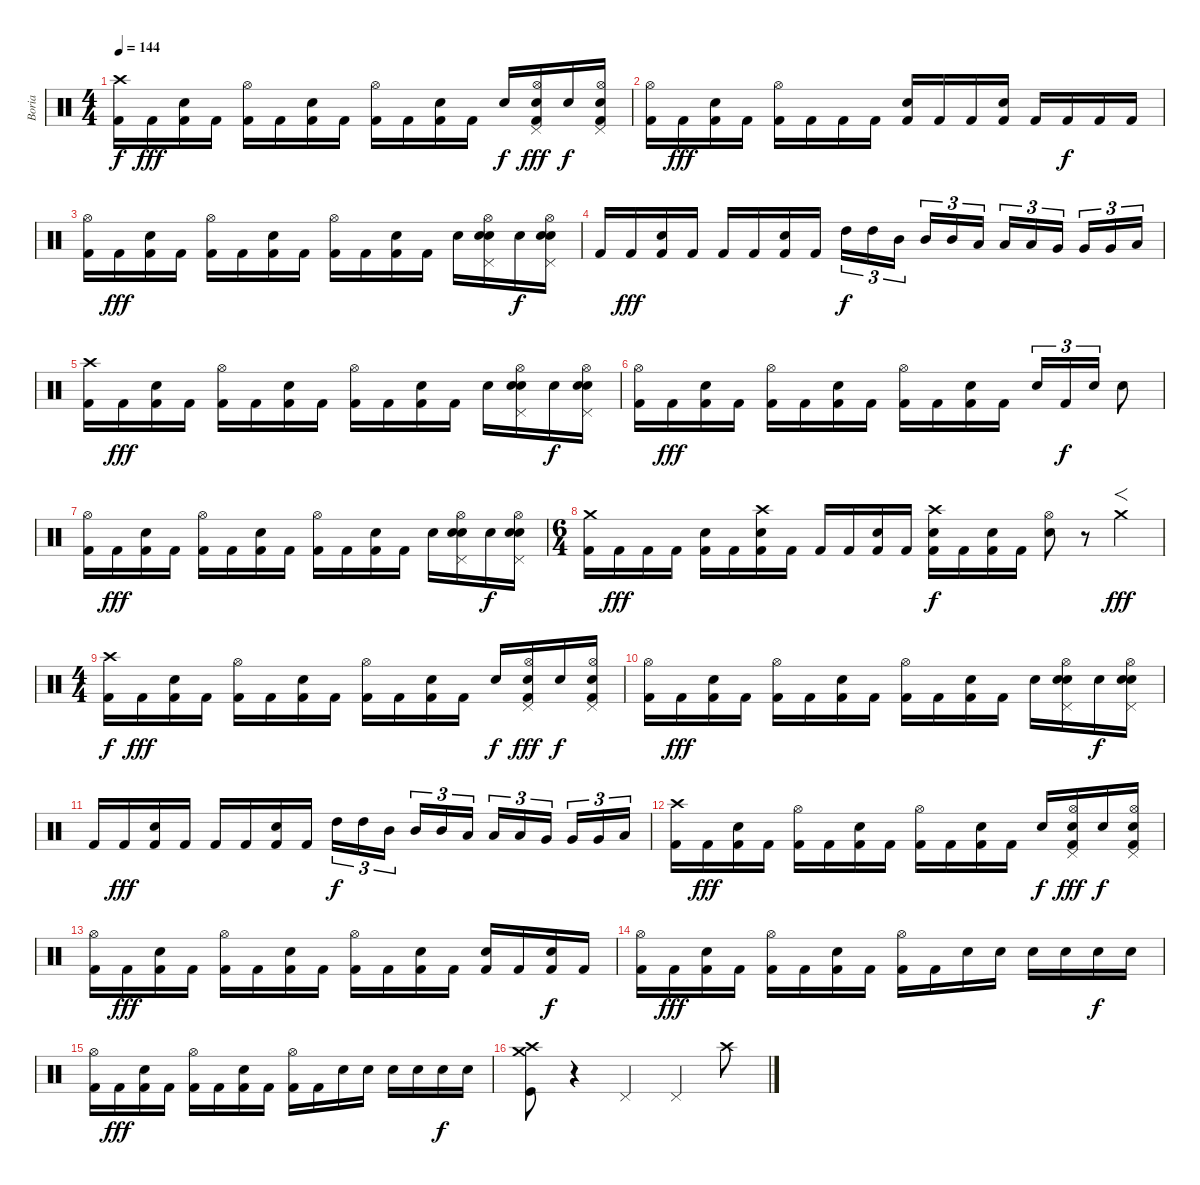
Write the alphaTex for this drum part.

\track ("Boria" "Boria") {instrument percussion}
\staff {score}
\articulation defaults
\ts (4 4)
\tempo 144
\clef neutral
\ks c
("Crash high (hit)" "Kick (hit) 2").16{dy f} "Kick (hit) 2".16{dy fff} ("Snare (hit) 2" "Kick (hit) 2").16 "Kick (hit) 2".16 ("Hi-Hat (open)" "Kick (hit) 2").16 "Kick (hit) 2".16 ("Snare (hit) 2" "Kick (hit) 2").16 "Kick (hit) 2".16 ("Hi-Hat (open)" "Kick (hit) 2").16 "Kick (hit) 2".16 ("Snare (hit) 2" "Kick (hit) 2").16 "Kick (hit) 2".16 "Snare (hit) 2".16{dy f} ("Pedal Hi-Hat (hit)" "Hi-Hat (open)" "Electric Snare (hit)" "Kick (hit) 2").16{dy fff} "Snare (hit) 2".16{dy f} ("Pedal Hi-Hat (hit)" "Hi-Hat (open)" "Electric Snare (hit)" "Kick (hit) 2").16 |
("Hi-Hat (open)" "Kick (hit) 2").16 "Kick (hit) 2".16{dy fff} ("Snare (hit) 2" "Kick (hit) 2").16 "Kick (hit) 2".16 ("Hi-Hat (open)" "Kick (hit) 2").16 "Kick (hit) 2".16 "Kick (hit) 2".16 "Kick (hit) 2".16 ("Snare (hit) 2" "Kick (hit) 2").16 "Kick (hit) 2".16 "Kick (hit) 2".16 ("Snare (hit) 2" "Kick (hit) 2").16 "Kick (hit) 2".16 "Kick (hit) 2".16{dy f} "Kick (hit) 2".16 "Kick (hit) 2".16 |
("Hi-Hat (open)" "Kick (hit) 2").16 "Kick (hit) 2".16{dy fff} ("Snare (hit) 2" "Kick (hit) 2").16 "Kick (hit) 2".16 ("Hi-Hat (open)" "Kick (hit) 2").16 "Kick (hit) 2".16 ("Snare (hit) 2" "Kick (hit) 2").16 "Kick (hit) 2".16 ("Hi-Hat (open)" "Kick (hit) 2").16 "Kick (hit) 2".16 ("Snare (hit) 2" "Kick (hit) 2").16 "Kick (hit) 2".16 "Snare (hit) 2".16 ("Pedal Hi-Hat (hit)" "Hi-Hat (open)" "Electric Snare (hit)" "Snare (hit) 2").16 "Snare (hit) 2".16{dy f} ("Pedal Hi-Hat (hit)" "Hi-Hat (open)" "Electric Snare (hit)" "Snare (hit) 2").16 |
"Kick (hit) 2".16 "Kick (hit) 2".16{dy fff} ("Snare (hit) 2" "Kick (hit) 2").16 "Kick (hit) 2".16 "Kick (hit) 2".16 "Kick (hit) 2".16 ("Snare (hit) 2" "Kick (hit) 2").16 "Kick (hit) 2".16 "High Tom (hit)".16{tu (3 2) dy f} "High Tom (hit)".16{tu (3 2)} "Mid Tom (hit)".16{tu (3 2)} "Mid Tom (hit)".16{tu (3 2)} "Mid Tom (hit)".16{tu (3 2)} "Low Tom (hit)".16{tu (3 2)} "Low Tom (hit)".16{tu (3 2)} "Low Tom (hit)".16{tu (3 2)} "Very Low Tom (hit)".16{tu (3 2)} "Very Low Tom (hit)".16{tu (3 2)} "Very Low Tom (hit)".16{tu (3 2)} "Low Floor Tom (hit)".16{tu (3 2)} |
("Crash high (hit)" "Kick (hit) 2").16 "Kick (hit) 2".16{dy fff} ("Snare (hit) 2" "Kick (hit) 2").16 "Kick (hit) 2".16 ("Hi-Hat (open)" "Kick (hit) 2").16 "Kick (hit) 2".16 ("Snare (hit) 2" "Kick (hit) 2").16 "Kick (hit) 2".16 ("Hi-Hat (open)" "Kick (hit) 2").16 "Kick (hit) 2".16 ("Snare (hit) 2" "Kick (hit) 2").16 "Kick (hit) 2".16 "Snare (hit) 2".16 ("Pedal Hi-Hat (hit)" "Hi-Hat (open)" "Electric Snare (hit)" "Snare (hit) 2").16 "Snare (hit) 2".16{dy f} ("Pedal Hi-Hat (hit)" "Hi-Hat (open)" "Electric Snare (hit)" "Snare (hit) 2").16 |
("Hi-Hat (open)" "Kick (hit) 2").16 "Kick (hit) 2".16{dy fff} ("Snare (hit) 2" "Kick (hit) 2").16 "Kick (hit) 2".16 ("Hi-Hat (open)" "Kick (hit) 2").16 "Kick (hit) 2".16 ("Snare (hit) 2" "Kick (hit) 2").16 "Kick (hit) 2".16 ("Hi-Hat (open)" "Kick (hit) 2").16 "Kick (hit) 2".16 ("Snare (hit) 2" "Kick (hit) 2").16 "Kick (hit) 2".16 "Snare (hit) 2".16{tu (3 2)} "Kick (hit) 2".16{tu (3 2) dy f} "Snare (hit) 2".16{tu (3 2)} "Electric Snare (hit)".8 |
("Hi-Hat (open)" "Kick (hit) 2").16 "Kick (hit) 2".16{dy fff} ("Snare (hit) 2" "Kick (hit) 2").16 "Kick (hit) 2".16 ("Hi-Hat (open)" "Kick (hit) 2").16 "Kick (hit) 2".16 ("Snare (hit) 2" "Kick (hit) 2").16 "Kick (hit) 2".16 ("Hi-Hat (open)" "Kick (hit) 2").16 "Kick (hit) 2".16 ("Snare (hit) 2" "Kick (hit) 2").16 "Kick (hit) 2".16 "Snare (hit) 2".16 ("Pedal Hi-Hat (hit)" "Hi-Hat (open)" "Electric Snare (hit)" "Snare (hit) 2").16 "Snare (hit) 2".16{dy f} ("Pedal Hi-Hat (hit)" "Hi-Hat (open)" "Electric Snare (hit)" "Snare (hit) 2").16 |
\ts (6 4)
("Crash medium (hit)" "Kick (hit) 2").16 "Kick (hit) 2".16{dy fff} "Kick (hit) 2".16 "Kick (hit) 2".16 ("Snare (hit) 2" "Kick (hit) 2").16 "Kick (hit) 2".16 ("Crash high (hit)" "Electric Snare (hit)" "Kick (hit) 2").16 "Kick (hit) 2".16 "Kick (hit) 2".16 "Kick (hit) 2".16 ("Snare (hit) 2" "Kick (hit) 2").16 "Kick (hit) 2".16 ("Crash high (hit)" "Electric Snare (hit)" "Kick (hit) 2").16{dy f} "Kick (hit) 2".16 ("Snare (hit) 2" "Kick (hit) 2").16 "Kick (hit) 2".16 ("Hi-Hat (open)" "Electric Snare (hit)").8 r.8 "Crash medium (hit)".4{f dy fff} |
\ts (4 4)
("Crash high (hit)" "Kick (hit) 2").16{dy f} "Kick (hit) 2".16{dy fff} ("Snare (hit) 2" "Kick (hit) 2").16 "Kick (hit) 2".16 ("Hi-Hat (open)" "Kick (hit) 2").16 "Kick (hit) 2".16 ("Snare (hit) 2" "Kick (hit) 2").16 "Kick (hit) 2".16 ("Hi-Hat (open)" "Kick (hit) 2").16 "Kick (hit) 2".16 ("Snare (hit) 2" "Kick (hit) 2").16 "Kick (hit) 2".16 "Snare (hit) 2".16{dy f} ("Pedal Hi-Hat (hit)" "Hi-Hat (open)" "Electric Snare (hit)" "Kick (hit) 2").16{dy fff} "Snare (hit) 2".16{dy f} ("Pedal Hi-Hat (hit)" "Hi-Hat (open)" "Electric Snare (hit)" "Kick (hit) 2").16 |
("Hi-Hat (open)" "Kick (hit) 2").16 "Kick (hit) 2".16{dy fff} ("Snare (hit) 2" "Kick (hit) 2").16 "Kick (hit) 2".16 ("Hi-Hat (open)" "Kick (hit) 2").16 "Kick (hit) 2".16 ("Snare (hit) 2" "Kick (hit) 2").16 "Kick (hit) 2".16 ("Hi-Hat (open)" "Kick (hit) 2").16 "Kick (hit) 2".16 ("Snare (hit) 2" "Kick (hit) 2").16 "Kick (hit) 2".16 "Snare (hit) 2".16 ("Pedal Hi-Hat (hit)" "Hi-Hat (open)" "Electric Snare (hit)" "Snare (hit) 2").16 "Snare (hit) 2".16{dy f} ("Pedal Hi-Hat (hit)" "Hi-Hat (open)" "Electric Snare (hit)" "Snare (hit) 2").16 |
"Kick (hit) 2".16 "Kick (hit) 2".16{dy fff} ("Snare (hit) 2" "Kick (hit) 2").16 "Kick (hit) 2".16 "Kick (hit) 2".16 "Kick (hit) 2".16 ("Snare (hit) 2" "Kick (hit) 2").16 "Kick (hit) 2".16 "High Tom (hit)".16{tu (3 2) dy f} "High Tom (hit)".16{tu (3 2)} "Mid Tom (hit)".16{tu (3 2)} "Mid Tom (hit)".16{tu (3 2)} "Mid Tom (hit)".16{tu (3 2)} "Low Tom (hit)".16{tu (3 2)} "Low Tom (hit)".16{tu (3 2)} "Low Tom (hit)".16{tu (3 2)} "Very Low Tom (hit)".16{tu (3 2)} "Very Low Tom (hit)".16{tu (3 2)} "Very Low Tom (hit)".16{tu (3 2)} "Low Floor Tom (hit)".16{tu (3 2)} |
("Crash high (hit)" "Kick (hit) 2").16 "Kick (hit) 2".16{dy fff} ("Snare (hit) 2" "Kick (hit) 2").16 "Kick (hit) 2".16 ("Hi-Hat (open)" "Kick (hit) 2").16 "Kick (hit) 2".16 ("Snare (hit) 2" "Kick (hit) 2").16 "Kick (hit) 2".16 ("Hi-Hat (open)" "Kick (hit) 2").16 "Kick (hit) 2".16 ("Snare (hit) 2" "Kick (hit) 2").16 "Kick (hit) 2".16 "Snare (hit) 2".16{dy f} ("Pedal Hi-Hat (hit)" "Hi-Hat (open)" "Electric Snare (hit)" "Kick (hit) 2").16{dy fff} "Snare (hit) 2".16{dy f} ("Pedal Hi-Hat (hit)" "Hi-Hat (open)" "Electric Snare (hit)" "Kick (hit) 2").16 |
("Hi-Hat (open)" "Kick (hit) 2").16 "Kick (hit) 2".16{dy fff} ("Snare (hit) 2" "Kick (hit) 2").16 "Kick (hit) 2".16 ("Hi-Hat (open)" "Kick (hit) 2").16 "Kick (hit) 2".16 ("Snare (hit) 2" "Kick (hit) 2").16 "Kick (hit) 2".16 ("Hi-Hat (open)" "Kick (hit) 2").16 "Kick (hit) 2".16 ("Snare (hit) 2" "Kick (hit) 2").16 "Kick (hit) 2".16 ("Electric Snare (hit)" "Kick (hit) 2").16 "Kick (hit) 2".16 ("Electric Snare (hit)" "Kick (hit) 2").16{dy f} "Kick (hit) 2".16 |
("Hi-Hat (open)" "Kick (hit) 2").16 "Kick (hit) 2".16{dy fff} ("Snare (hit) 2" "Kick (hit) 2").16 "Kick (hit) 2".16 ("Hi-Hat (open)" "Kick (hit) 2").16 "Kick (hit) 2".16 ("Snare (hit) 2" "Kick (hit) 2").16 "Kick (hit) 2".16 ("Hi-Hat (open)" "Kick (hit) 2").16 "Kick (hit) 2".16 "Snare (hit) 2".16 "Snare (hit) 2".16 "Snare (hit) 2".16 "Snare (hit) 2".16 "Snare (hit) 2".16{dy f} "Snare (hit) 2".16 |
("Hi-Hat (open)" "Kick (hit) 2").16 "Kick (hit) 2".16{dy fff} ("Snare (hit) 2" "Kick (hit) 2").16 "Kick (hit) 2".16 ("Hi-Hat (open)" "Kick (hit) 2").16 "Kick (hit) 2".16 ("Snare (hit) 2" "Kick (hit) 2").16 "Kick (hit) 2".16 ("Hi-Hat (open)" "Kick (hit) 2").16 "Kick (hit) 2".16 "Snare (hit) 2".16 "Snare (hit) 2".16 "Snare (hit) 2".16 "Snare (hit) 2".16 "Snare (hit) 2".16{dy f} "Snare (hit) 2".16 |
("Crash medium (hit)" "Crash high (hit)" "Kick (hit)").8 r.4 "Pedal Hi-Hat (hit)".4 "Pedal Hi-Hat (hit)".4 "Crash high (hit)".8
